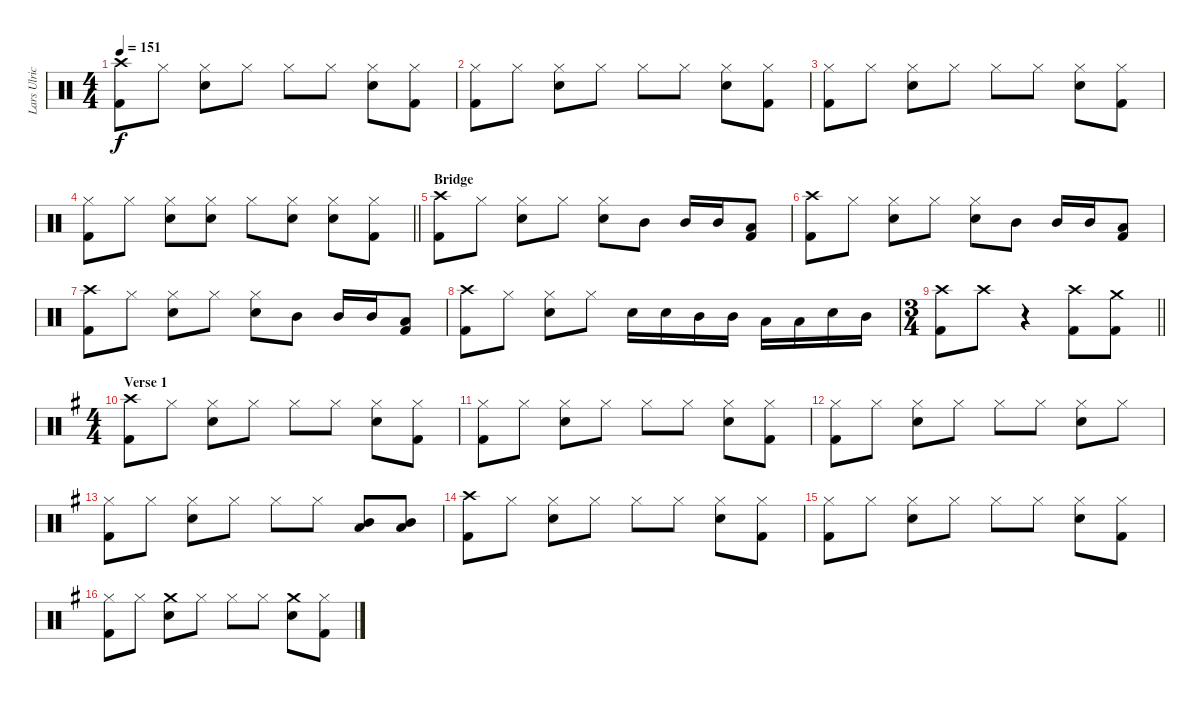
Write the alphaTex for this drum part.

\track ("Lars Ulrich" "Lars Ulric") {instrument percussion}
\staff {score}
\articulation defaults
\ts (4 4)
\tempo 151
\clef neutral
\ks c
("Crash high (hit)" "Kick (hit) 2").8{dy f volume 16} "Hi-Hat (closed)".8 ("Hi-Hat (closed)" "Snare (hit) 2").8 "Hi-Hat (closed)".8 "Hi-Hat (closed)".8 "Hi-Hat (closed)".8 ("Hi-Hat (closed)" "Snare (hit) 2").8 ("Hi-Hat (closed)" "Kick (hit) 2").8 |
("Hi-Hat (closed)" "Kick (hit) 2").8 "Hi-Hat (closed)".8 ("Hi-Hat (closed)" "Snare (hit) 2").8 "Hi-Hat (closed)".8 "Hi-Hat (closed)".8 "Hi-Hat (closed)".8 ("Hi-Hat (closed)" "Snare (hit) 2").8 ("Hi-Hat (closed)" "Kick (hit) 2").8 |
("Hi-Hat (closed)" "Kick (hit) 2").8 "Hi-Hat (closed)".8 ("Hi-Hat (closed)" "Snare (hit) 2").8 "Hi-Hat (closed)".8 "Hi-Hat (closed)".8 "Hi-Hat (closed)".8 ("Hi-Hat (closed)" "Snare (hit) 2").8 ("Hi-Hat (closed)" "Kick (hit) 2").8 |
\barLineRight lightlight
("Hi-Hat (closed)" "Kick (hit) 2").8 "Hi-Hat (closed)".8 ("Hi-Hat (closed)" "Snare (hit) 2").8 ("Hi-Hat (closed)" "Snare (hit) 2").8 "Hi-Hat (closed)".8 ("Hi-Hat (closed)" "Snare (hit) 2").8 ("Hi-Hat (closed)" "Snare (hit) 2").8 ("Hi-Hat (closed)" "Kick (hit) 2").8 |
\section ("" "Bridge")
("Crash high (hit)" "Kick (hit) 2").8 "Hi-Hat (closed)".8 ("Hi-Hat (closed)" "Snare (hit) 2").8 "Hi-Hat (closed)".8 ("Hi-Hat (closed)" "Snare (hit) 2").8 "Mid Tom (hit)".8 "Mid Tom (hit)".16 "Mid Tom (hit)".16 ("Low Tom (hit)" "Kick (hit) 2").8 |
("Crash high (hit)" "Kick (hit) 2").8 "Hi-Hat (closed)".8 ("Hi-Hat (closed)" "Snare (hit) 2").8 "Hi-Hat (closed)".8 ("Hi-Hat (closed)" "Snare (hit) 2").8 "Mid Tom (hit)".8 "Mid Tom (hit)".16 "Mid Tom (hit)".16 ("Low Tom (hit)" "Kick (hit) 2").8 |
("Crash high (hit)" "Kick (hit) 2").8 "Hi-Hat (closed)".8 ("Hi-Hat (closed)" "Snare (hit) 2").8 "Hi-Hat (closed)".8 ("Hi-Hat (closed)" "Snare (hit) 2").8 "Mid Tom (hit)".8 "Mid Tom (hit)".16 "Mid Tom (hit)".16 ("Low Tom (hit)" "Kick (hit) 2").8 |
("Crash high (hit)" "Kick (hit) 2").8 "Hi-Hat (closed)".8 ("Hi-Hat (closed)" "Snare (hit) 2").8 "Hi-Hat (closed)".8 "Snare (hit) 2".16 "Snare (hit) 2".16 "Mid Tom (hit)".16 "Mid Tom (hit)".16 "Low Tom (hit)".16 "Low Tom (hit)".16 "Snare (hit) 2".16 "Mid Tom (hit)".16 |
\ts (3 4)
\barLineRight lightlight
("Crash high (hit)" "Kick (hit) 2").8 "Crash high (hit)".8{volume 0} r.4 ("Crash high (hit)" "Kick (hit) 2").8{volume 16} ("Crash medium (hit)" "Kick (hit) 2").8 |
\ts (4 4)
\section ("" "Verse 1")
\ks g
("Crash high (hit)" "Kick (hit) 2").8 "Hi-Hat (closed)".8 ("Hi-Hat (closed)" "Snare (hit) 2").8 "Hi-Hat (closed)".8 "Hi-Hat (closed)".8 "Hi-Hat (closed)".8 ("Hi-Hat (closed)" "Snare (hit) 2").8 ("Hi-Hat (closed)" "Kick (hit) 2").8 |
("Hi-Hat (closed)" "Kick (hit) 2").8 "Hi-Hat (closed)".8 ("Hi-Hat (closed)" "Snare (hit) 2").8 "Hi-Hat (closed)".8 "Hi-Hat (closed)".8 "Hi-Hat (closed)".8 ("Hi-Hat (closed)" "Snare (hit) 2").8 ("Hi-Hat (closed)" "Kick (hit) 2").8 |
("Hi-Hat (closed)" "Kick (hit) 2").8 "Hi-Hat (closed)".8 ("Hi-Hat (closed)" "Snare (hit) 2").8 "Hi-Hat (closed)".8 "Hi-Hat (closed)".8 "Hi-Hat (closed)".8 ("Hi-Hat (closed)" "Snare (hit) 2").8 "Hi-Hat (closed)".8 |
("Hi-Hat (closed)" "Kick (hit) 2").8 "Hi-Hat (closed)".8 ("Hi-Hat (closed)" "Snare (hit) 2").8 "Hi-Hat (closed)".8 "Hi-Hat (closed)".8 "Hi-Hat (closed)".8 ("Low Tom (hit)" "Mid Tom (hit)").8 ("Low Tom (hit)" "Mid Tom (hit)").8 |
("Crash high (hit)" "Kick (hit) 2").8 "Hi-Hat (closed)".8 ("Hi-Hat (closed)" "Snare (hit) 2").8 "Hi-Hat (closed)".8 "Hi-Hat (closed)".8 "Hi-Hat (closed)".8 ("Hi-Hat (closed)" "Snare (hit) 2").8 ("Hi-Hat (closed)" "Kick (hit) 2").8 |
("Hi-Hat (closed)" "Kick (hit) 2").8 "Hi-Hat (closed)".8 ("Hi-Hat (closed)" "Snare (hit) 2").8 "Hi-Hat (closed)".8 "Hi-Hat (closed)".8 "Hi-Hat (closed)".8 ("Hi-Hat (closed)" "Snare (hit) 2").8 ("Hi-Hat (closed)" "Kick (hit) 2").8 |
("Hi-Hat (closed)" "Kick (hit) 2").8 "Hi-Hat (closed)".8 ("Crash medium (hit)" "Snare (hit) 2").8 "Hi-Hat (closed)".8 "Hi-Hat (closed)".8 "Hi-Hat (closed)".8 ("Crash medium (hit)" "Snare (hit) 2").8 ("Hi-Hat (closed)" "Kick (hit) 2").8
